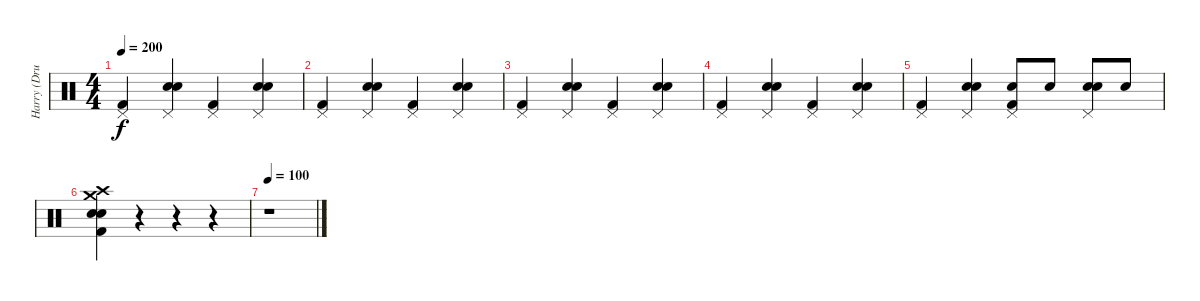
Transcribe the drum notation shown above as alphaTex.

\track ("Harry (Drums)" "Harry (Dru") {instrument percussion}
\staff {score}
\articulation defaults
\ts (4 4)
\tempo 200
\clef neutral
\ks c
("Kick (hit) 2" "Pedal Hi-Hat (hit)").4{dy f} ("Snare (hit) 2" "Electric Snare (hit)" "Pedal Hi-Hat (hit)").4 ("Kick (hit) 2" "Pedal Hi-Hat (hit)").4 ("Snare (hit) 2" "Electric Snare (hit)" "Pedal Hi-Hat (hit)").4 |
("Kick (hit) 2" "Pedal Hi-Hat (hit)").4 ("Snare (hit) 2" "Electric Snare (hit)" "Pedal Hi-Hat (hit)").4 ("Kick (hit) 2" "Pedal Hi-Hat (hit)").4 ("Snare (hit) 2" "Electric Snare (hit)" "Pedal Hi-Hat (hit)").4 |
("Kick (hit) 2" "Pedal Hi-Hat (hit)").4 ("Snare (hit) 2" "Electric Snare (hit)" "Pedal Hi-Hat (hit)").4 ("Kick (hit) 2" "Pedal Hi-Hat (hit)").4 ("Snare (hit) 2" "Electric Snare (hit)" "Pedal Hi-Hat (hit)").4 |
("Kick (hit) 2" "Pedal Hi-Hat (hit)").4 ("Snare (hit) 2" "Electric Snare (hit)" "Pedal Hi-Hat (hit)").4 ("Kick (hit) 2" "Pedal Hi-Hat (hit)").4 ("Snare (hit) 2" "Electric Snare (hit)" "Pedal Hi-Hat (hit)").4 |
("Kick (hit) 2" "Pedal Hi-Hat (hit)").4 ("Snare (hit) 2" "Electric Snare (hit)" "Pedal Hi-Hat (hit)").4 ("Kick (hit) 2" "Snare (hit) 2" "Pedal Hi-Hat (hit)").8 "Snare (hit) 2".8 ("Snare (hit) 2" "Electric Snare (hit)" "Pedal Hi-Hat (hit)").8 "Snare (hit) 2".8 |
("Kick (hit) 2" "Electric Snare (hit)" "Snare (hit) 2" "Crash medium (hit)" "Crash high (hit)").4 r.4 r.4 r.4 |
\tempo 100
r.1
